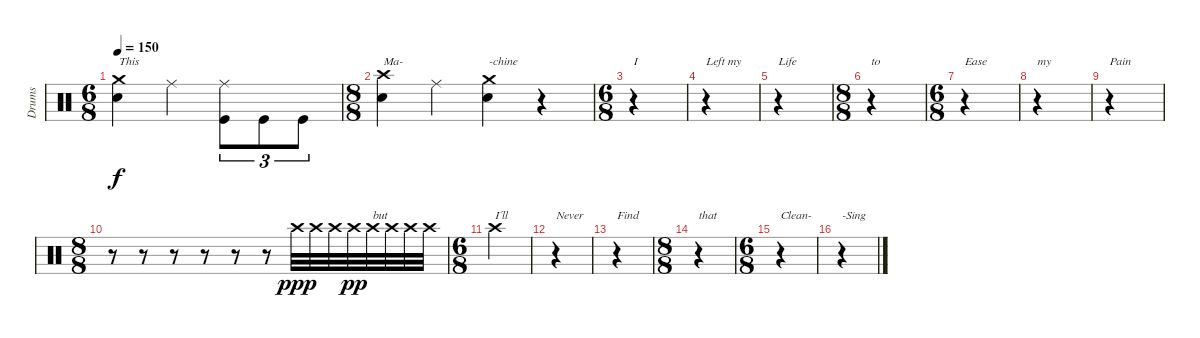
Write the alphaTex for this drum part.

\track ("Drums" "Drums") {instrument percussion}
\staff {score}
\articulation defaults
\ts (6 8)
\tempo 150
\clef neutral
\ks c
("Crash medium (hit)" "Snare (hit) 2").4{txt "This" dy f} "Ride (middle)".4 ("Ride (middle)" "Kick (hit)").8{tu (3 2)} "Kick (hit)".8{tu (3 2)} "Kick (hit)".8{tu (3 2)} |
\ts (8 8)
("Crash high (hit)" "Snare (hit) 2").4{txt "Ma-"} "Ride (middle)".4 ("Crash medium (hit)" "Snare (hit) 2").4{txt "-chine"} r.4 |
\ts (6 8)
r.4{txt "I"} |
r.4{txt "Left my"} |
r.4{txt "Life"} |
\ts (8 8)
r.4{txt "to"} |
\ts (6 8)
r.4{txt "Ease"} |
r.4{txt "my"} |
r.4{txt "Pain"} |
\ts (8 8)
r.8 r.8 r.8 r.8 r.8 r.8 "Crash high (hit)".32{dy ppp} "Crash high (hit)".32 "Crash high (hit)".32 "Crash high (hit)".32{dy pp} "Crash high (hit)".32{txt "but"} "Crash high (hit)".32 "Crash high (hit)".32 "Crash high (hit)".32 |
\ts (6 8)
"Crash high (hit)".4{txt "I´ll"} |
r.4{txt "Never"} |
r.4{txt "Find"} |
\ts (8 8)
r.4{txt "that"} |
\ts (6 8)
r.4{txt "Clean-"} |
r.4{txt "-Sing"}
